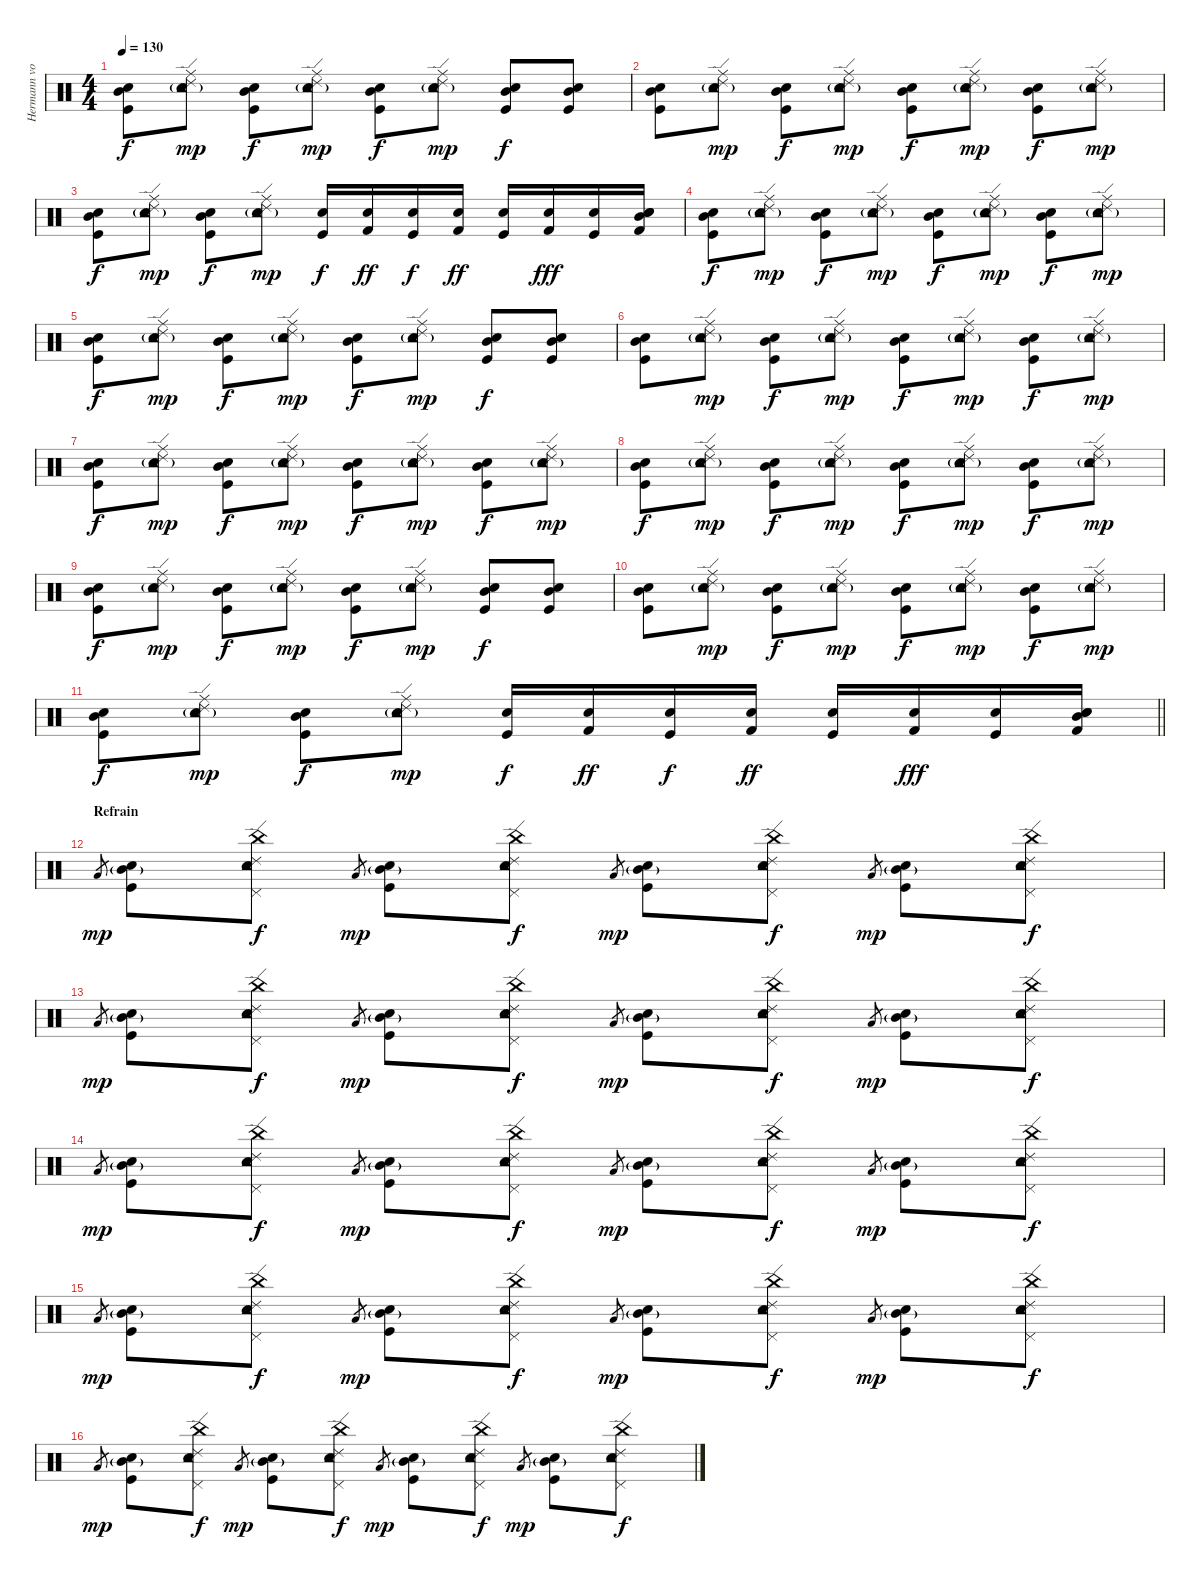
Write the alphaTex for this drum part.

\track ("Hermann von Hinten" "Hermann vo") {instrument percussion}
\staff {score}
\articulation defaults
\ts (4 4)
\tempo 130
\clef neutral
\ks c
("Kick (hit)" "Mid Tom (hit)" "Electric Snare (hit)").8{dy f} ("Ride (middle)" "Tambourine (hit)" "Ride (edge) 2" "Snare (hit) 2"{g}).8{dy mp} ("Kick (hit)" "Mid Tom (hit)" "Electric Snare (hit)").8{dy f} ("Ride (middle)" "Tambourine (hit)" "Ride (edge) 2" "Snare (hit) 2"{g}).8{dy mp} ("Kick (hit)" "Mid Tom (hit)" "Electric Snare (hit)").8{dy f} ("Ride (middle)" "Tambourine (hit)" "Ride (edge) 2" "Snare (hit) 2"{g}).8{dy mp} ("Kick (hit)" "Mid Tom (hit)" "Snare (hit) 2").8{dy f} ("Kick (hit)" "Mid Tom (hit)" "Electric Snare (hit)").8 |
("Kick (hit)" "Mid Tom (hit)" "Electric Snare (hit)").8 ("Ride (middle)" "Tambourine (hit)" "Ride (edge) 2" "Snare (hit) 2"{g}).8{dy mp} ("Kick (hit)" "Mid Tom (hit)" "Electric Snare (hit)").8{dy f} ("Ride (middle)" "Tambourine (hit)" "Ride (edge) 2" "Snare (hit) 2"{g}).8{dy mp} ("Kick (hit)" "Mid Tom (hit)" "Electric Snare (hit)").8{dy f} ("Ride (middle)" "Tambourine (hit)" "Ride (edge) 2" "Snare (hit) 2"{g}).8{dy mp} ("Kick (hit)" "Mid Tom (hit)" "Electric Snare (hit)").8{dy f} ("Ride (middle)" "Tambourine (hit)" "Ride (edge) 2" "Snare (hit) 2"{g}).8{dy mp} |
("Kick (hit)" "Mid Tom (hit)" "Electric Snare (hit)").8{dy f} ("Ride (middle)" "Tambourine (hit)" "Ride (edge) 2" "Snare (hit) 2"{g}).8{dy mp} ("Kick (hit)" "Mid Tom (hit)" "Electric Snare (hit)").8{dy f} ("Ride (middle)" "Tambourine (hit)" "Ride (edge) 2" "Snare (hit) 2"{g}).8{dy mp} ("Kick (hit)" "Snare (hit) 2").16{dy f} ("Kick (hit) 2" "Electric Snare (hit)").16{dy ff} ("Kick (hit)" "Snare (hit) 2").16{dy f} ("Kick (hit) 2" "Electric Snare (hit)").16{dy ff} ("Kick (hit)" "Snare (hit) 2").16 ("Kick (hit) 2" "Electric Snare (hit)").16{dy fff} ("Kick (hit)" "Snare (hit) 2").16 ("Mid Tom (hit)" "Kick (hit) 2" "Electric Snare (hit)" "Snare (hit) 2").16 |
("Kick (hit)" "Mid Tom (hit)" "Electric Snare (hit)").8{dy f} ("Ride (middle)" "Tambourine (hit)" "Ride (edge) 2" "Snare (hit) 2"{g}).8{dy mp} ("Kick (hit)" "Mid Tom (hit)" "Electric Snare (hit)").8{dy f} ("Ride (middle)" "Tambourine (hit)" "Ride (edge) 2" "Snare (hit) 2"{g}).8{dy mp} ("Kick (hit)" "Mid Tom (hit)" "Electric Snare (hit)").8{dy f} ("Ride (middle)" "Tambourine (hit)" "Ride (edge) 2" "Snare (hit) 2"{g}).8{dy mp} ("Kick (hit)" "Mid Tom (hit)" "Electric Snare (hit)").8{dy f} ("Ride (middle)" "Tambourine (hit)" "Ride (edge) 2" "Snare (hit) 2"{g}).8{dy mp} |
("Kick (hit)" "Mid Tom (hit)" "Electric Snare (hit)").8{dy f} ("Ride (middle)" "Tambourine (hit)" "Ride (edge) 2" "Snare (hit) 2"{g}).8{dy mp} ("Kick (hit)" "Mid Tom (hit)" "Electric Snare (hit)").8{dy f} ("Ride (middle)" "Tambourine (hit)" "Ride (edge) 2" "Snare (hit) 2"{g}).8{dy mp} ("Kick (hit)" "Mid Tom (hit)" "Electric Snare (hit)").8{dy f} ("Ride (middle)" "Tambourine (hit)" "Ride (edge) 2" "Snare (hit) 2"{g}).8{dy mp} ("Kick (hit)" "Mid Tom (hit)" "Snare (hit) 2").8{dy f} ("Kick (hit)" "Mid Tom (hit)" "Electric Snare (hit)").8 |
("Kick (hit)" "Mid Tom (hit)" "Electric Snare (hit)").8 ("Ride (middle)" "Tambourine (hit)" "Ride (edge) 2" "Snare (hit) 2"{g}).8{dy mp} ("Kick (hit)" "Mid Tom (hit)" "Electric Snare (hit)").8{dy f} ("Ride (middle)" "Tambourine (hit)" "Ride (edge) 2" "Snare (hit) 2"{g}).8{dy mp} ("Kick (hit)" "Mid Tom (hit)" "Electric Snare (hit)").8{dy f} ("Ride (middle)" "Tambourine (hit)" "Ride (edge) 2" "Snare (hit) 2"{g}).8{dy mp} ("Kick (hit)" "Mid Tom (hit)" "Electric Snare (hit)").8{dy f} ("Ride (middle)" "Tambourine (hit)" "Ride (edge) 2" "Snare (hit) 2"{g}).8{dy mp} |
("Kick (hit)" "Mid Tom (hit)" "Electric Snare (hit)").8{dy f} ("Ride (middle)" "Tambourine (hit)" "Ride (edge) 2" "Snare (hit) 2"{g}).8{dy mp} ("Kick (hit)" "Mid Tom (hit)" "Electric Snare (hit)").8{dy f} ("Ride (middle)" "Tambourine (hit)" "Ride (edge) 2" "Snare (hit) 2"{g}).8{dy mp} ("Kick (hit)" "Mid Tom (hit)" "Electric Snare (hit)").8{dy f} ("Ride (middle)" "Tambourine (hit)" "Ride (edge) 2" "Snare (hit) 2"{g}).8{dy mp} ("Kick (hit)" "Mid Tom (hit)" "Electric Snare (hit)").8{dy f} ("Ride (middle)" "Tambourine (hit)" "Ride (edge) 2" "Snare (hit) 2"{g}).8{dy mp} |
("Kick (hit)" "Mid Tom (hit)" "Electric Snare (hit)").8{dy f} ("Ride (middle)" "Tambourine (hit)" "Ride (edge) 2" "Snare (hit) 2"{g}).8{dy mp} ("Kick (hit)" "Mid Tom (hit)" "Electric Snare (hit)").8{dy f} ("Ride (middle)" "Tambourine (hit)" "Ride (edge) 2" "Snare (hit) 2"{g}).8{dy mp} ("Kick (hit)" "Mid Tom (hit)" "Electric Snare (hit)").8{dy f} ("Ride (middle)" "Tambourine (hit)" "Ride (edge) 2" "Snare (hit) 2"{g}).8{dy mp} ("Kick (hit)" "Mid Tom (hit)" "Electric Snare (hit)").8{dy f} ("Ride (middle)" "Tambourine (hit)" "Ride (edge) 2" "Snare (hit) 2"{g}).8{dy mp} |
("Kick (hit)" "Mid Tom (hit)" "Electric Snare (hit)").8{dy f} ("Ride (middle)" "Tambourine (hit)" "Ride (edge) 2" "Snare (hit) 2"{g}).8{dy mp} ("Kick (hit)" "Mid Tom (hit)" "Electric Snare (hit)").8{dy f} ("Ride (middle)" "Tambourine (hit)" "Ride (edge) 2" "Snare (hit) 2"{g}).8{dy mp} ("Kick (hit)" "Mid Tom (hit)" "Electric Snare (hit)").8{dy f} ("Ride (middle)" "Tambourine (hit)" "Ride (edge) 2" "Snare (hit) 2"{g}).8{dy mp} ("Kick (hit)" "Mid Tom (hit)" "Snare (hit) 2").8{dy f} ("Kick (hit)" "Mid Tom (hit)" "Electric Snare (hit)").8 |
("Kick (hit)" "Mid Tom (hit)" "Electric Snare (hit)").8 ("Ride (middle)" "Tambourine (hit)" "Ride (edge) 2" "Snare (hit) 2"{g}).8{dy mp} ("Kick (hit)" "Mid Tom (hit)" "Electric Snare (hit)").8{dy f} ("Ride (middle)" "Tambourine (hit)" "Ride (edge) 2" "Snare (hit) 2"{g}).8{dy mp} ("Kick (hit)" "Mid Tom (hit)" "Electric Snare (hit)").8{dy f} ("Ride (middle)" "Tambourine (hit)" "Ride (edge) 2" "Snare (hit) 2"{g}).8{dy mp} ("Kick (hit)" "Mid Tom (hit)" "Electric Snare (hit)").8{dy f} ("Ride (middle)" "Tambourine (hit)" "Ride (edge) 2" "Snare (hit) 2"{g}).8{dy mp} |
\barLineRight lightlight
("Kick (hit)" "Mid Tom (hit)" "Electric Snare (hit)").8{dy f} ("Ride (middle)" "Tambourine (hit)" "Ride (edge) 2" "Snare (hit) 2"{g}).8{dy mp} ("Kick (hit)" "Mid Tom (hit)" "Electric Snare (hit)").8{dy f} ("Ride (middle)" "Tambourine (hit)" "Ride (edge) 2" "Snare (hit) 2"{g}).8{dy mp} ("Kick (hit)" "Snare (hit) 2").16{dy f} ("Kick (hit) 2" "Electric Snare (hit)").16{dy ff} ("Kick (hit)" "Snare (hit) 2").16{dy f} ("Kick (hit) 2" "Electric Snare (hit)").16{dy ff} ("Kick (hit)" "Snare (hit) 2").16 ("Kick (hit) 2" "Electric Snare (hit)").16{dy fff} ("Kick (hit)" "Snare (hit) 2").16 ("Mid Tom (hit)" "Kick (hit) 2" "Electric Snare (hit)" "Snare (hit) 2").16 |
\section ("" "Refrain")
"Low Tom (hit)".8{gr dy mp} ("Mid Tom (hit)"{g} "Kick (hit)" "Snare (hit) 2").8 ("Tambourine (hit)" "Pedal Hi-Hat (hit)" "China (hit)" "Ride (edge) 2" "Electric Snare (hit)").8{dy f} "Low Tom (hit)".8{gr dy mp} ("Mid Tom (hit)"{g} "Kick (hit)" "Snare (hit) 2").8 ("Tambourine (hit)" "Pedal Hi-Hat (hit)" "China (hit)" "Ride (edge) 2" "Electric Snare (hit)").8{dy f} "Low Tom (hit)".8{gr dy mp} ("Mid Tom (hit)"{g} "Kick (hit)" "Snare (hit) 2").8 ("Tambourine (hit)" "Pedal Hi-Hat (hit)" "China (hit)" "Ride (edge) 2" "Electric Snare (hit)").8{dy f} "Low Tom (hit)".8{gr dy mp} ("Mid Tom (hit)"{g} "Kick (hit)" "Snare (hit) 2").8 ("Tambourine (hit)" "Pedal Hi-Hat (hit)" "China (hit)" "Ride (edge) 2" "Electric Snare (hit)").8{dy f} |
"Low Tom (hit)".8{gr dy mp} ("Mid Tom (hit)"{g} "Kick (hit)" "Snare (hit) 2").8 ("Tambourine (hit)" "Pedal Hi-Hat (hit)" "China (hit)" "Ride (edge) 2" "Electric Snare (hit)").8{dy f} "Low Tom (hit)".8{gr dy mp} ("Mid Tom (hit)"{g} "Kick (hit)" "Snare (hit) 2").8 ("Tambourine (hit)" "Pedal Hi-Hat (hit)" "China (hit)" "Ride (edge) 2" "Electric Snare (hit)").8{dy f} "Low Tom (hit)".8{gr dy mp} ("Mid Tom (hit)"{g} "Kick (hit)" "Snare (hit) 2").8 ("Tambourine (hit)" "Pedal Hi-Hat (hit)" "China (hit)" "Ride (edge) 2" "Electric Snare (hit)").8{dy f} "Low Tom (hit)".8{gr dy mp} ("Mid Tom (hit)"{g} "Kick (hit)" "Snare (hit) 2").8 ("Tambourine (hit)" "Pedal Hi-Hat (hit)" "China (hit)" "Ride (edge) 2" "Electric Snare (hit)").8{dy f} |
"Low Tom (hit)".8{gr dy mp} ("Mid Tom (hit)"{g} "Kick (hit)" "Snare (hit) 2").8 ("Tambourine (hit)" "Pedal Hi-Hat (hit)" "China (hit)" "Ride (edge) 2" "Electric Snare (hit)").8{dy f} "Low Tom (hit)".8{gr dy mp} ("Mid Tom (hit)"{g} "Kick (hit)" "Snare (hit) 2").8 ("Tambourine (hit)" "Pedal Hi-Hat (hit)" "China (hit)" "Ride (edge) 2" "Electric Snare (hit)").8{dy f} "Low Tom (hit)".8{gr dy mp} ("Mid Tom (hit)"{g} "Kick (hit)" "Snare (hit) 2").8 ("Tambourine (hit)" "Pedal Hi-Hat (hit)" "China (hit)" "Ride (edge) 2" "Electric Snare (hit)").8{dy f} "Low Tom (hit)".8{gr dy mp} ("Mid Tom (hit)"{g} "Kick (hit)" "Snare (hit) 2").8 ("Tambourine (hit)" "Pedal Hi-Hat (hit)" "China (hit)" "Ride (edge) 2" "Electric Snare (hit)").8{dy f} |
"Low Tom (hit)".8{gr dy mp} ("Mid Tom (hit)"{g} "Kick (hit)" "Snare (hit) 2").8 ("Tambourine (hit)" "Pedal Hi-Hat (hit)" "China (hit)" "Ride (edge) 2" "Electric Snare (hit)").8{dy f} "Low Tom (hit)".8{gr dy mp} ("Mid Tom (hit)"{g} "Kick (hit)" "Snare (hit) 2").8 ("Tambourine (hit)" "Pedal Hi-Hat (hit)" "China (hit)" "Ride (edge) 2" "Electric Snare (hit)").8{dy f} "Low Tom (hit)".8{gr dy mp} ("Mid Tom (hit)"{g} "Kick (hit)" "Snare (hit) 2").8 ("Tambourine (hit)" "Pedal Hi-Hat (hit)" "China (hit)" "Ride (edge) 2" "Electric Snare (hit)").8{dy f} "Low Tom (hit)".8{gr dy mp} ("Mid Tom (hit)"{g} "Kick (hit)" "Snare (hit) 2").8 ("Tambourine (hit)" "Pedal Hi-Hat (hit)" "China (hit)" "Ride (edge) 2" "Electric Snare (hit)").8{dy f} |
"Low Tom (hit)".8{gr dy mp} ("Mid Tom (hit)"{g} "Kick (hit)" "Snare (hit) 2").8 ("Tambourine (hit)" "Pedal Hi-Hat (hit)" "China (hit)" "Ride (edge) 2" "Electric Snare (hit)").8{dy f} "Low Tom (hit)".8{gr dy mp} ("Mid Tom (hit)"{g} "Kick (hit)" "Snare (hit) 2").8 ("Tambourine (hit)" "Pedal Hi-Hat (hit)" "China (hit)" "Ride (edge) 2" "Electric Snare (hit)").8{dy f} "Low Tom (hit)".8{gr dy mp} ("Mid Tom (hit)"{g} "Kick (hit)" "Snare (hit) 2").8 ("Tambourine (hit)" "Pedal Hi-Hat (hit)" "China (hit)" "Ride (edge) 2" "Electric Snare (hit)").8{dy f} "Low Tom (hit)".8{gr dy mp} ("Mid Tom (hit)"{g} "Kick (hit)" "Snare (hit) 2").8 ("Tambourine (hit)" "Pedal Hi-Hat (hit)" "China (hit)" "Ride (edge) 2" "Electric Snare (hit)").8{dy f}
